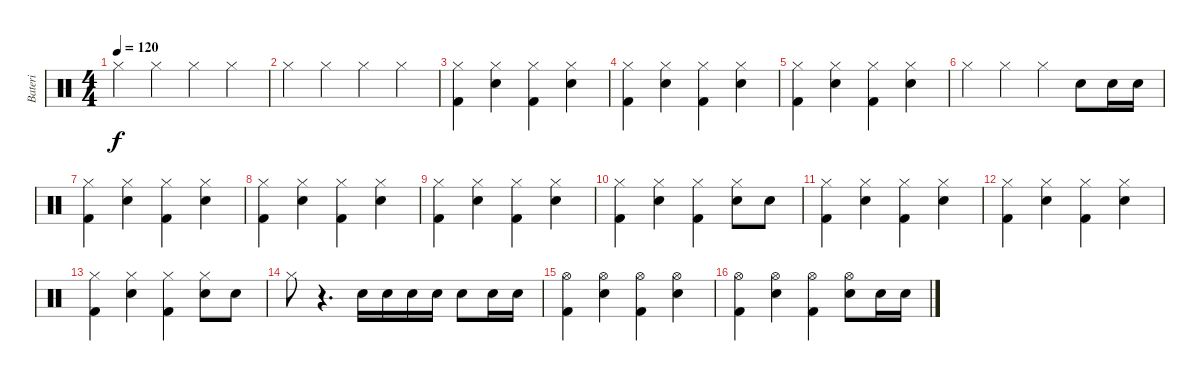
\track ("Bateri" "Bateri") {instrument percussion}
\staff {score}
\articulation defaults
\ts (4 4)
\tempo 120
\clef neutral
\ks c "Hi-Hat (closed)".4{dy f} "Hi-Hat (closed)".4 "Hi-Hat (closed)".4 "Hi-Hat (closed)".4
|
"Hi-Hat (closed)".4 "Hi-Hat (closed)".4 "Hi-Hat (closed)".4 "Hi-Hat (closed)".4 |
("Kick (hit) 2" "Hi-Hat (closed)").4 ("Electric Snare (hit)" "Hi-Hat (closed)").4 ("Kick (hit) 2" "Hi-Hat (closed)").4 ("Electric Snare (hit)" "Hi-Hat (closed)").4 |
("Kick (hit) 2" "Hi-Hat (closed)").4 ("Electric Snare (hit)" "Hi-Hat (closed)").4 ("Kick (hit) 2" "Hi-Hat (closed)").4 ("Electric Snare (hit)" "Hi-Hat (closed)").4 |
("Kick (hit) 2" "Hi-Hat (closed)").4 ("Electric Snare (hit)" "Hi-Hat (closed)").4 ("Kick (hit) 2" "Hi-Hat (closed)").4 ("Electric Snare (hit)" "Hi-Hat (closed)").4 |
"Hi-Hat (closed)".4 "Hi-Hat (closed)".4 "Hi-Hat (closed)".4 "Electric Snare (hit)".8 "Electric Snare (hit)".16 "Electric Snare (hit)".16 |
("Kick (hit) 2" "Hi-Hat (closed)").4 ("Electric Snare (hit)" "Hi-Hat (closed)").4 ("Kick (hit) 2" "Hi-Hat (closed)").4 ("Electric Snare (hit)" "Hi-Hat (closed)").4 |
("Kick (hit) 2" "Hi-Hat (closed)").4 ("Electric Snare (hit)" "Hi-Hat (closed)").4 ("Kick (hit) 2" "Hi-Hat (closed)").4 ("Electric Snare (hit)" "Hi-Hat (closed)").4 |
("Kick (hit) 2" "Hi-Hat (closed)").4 ("Electric Snare (hit)" "Hi-Hat (closed)").4 ("Kick (hit) 2" "Hi-Hat (closed)").4 ("Electric Snare (hit)" "Hi-Hat (closed)").4 |
("Kick (hit) 2" "Hi-Hat (closed)").4 ("Electric Snare (hit)" "Hi-Hat (closed)").4 ("Kick (hit) 2" "Hi-Hat (closed)").4 ("Electric Snare (hit)" "Hi-Hat (closed)").8 "Electric Snare (hit)".8 |
("Kick (hit) 2" "Hi-Hat (closed)").4 ("Electric Snare (hit)" "Hi-Hat (closed)").4 ("Kick (hit) 2" "Hi-Hat (closed)").4 ("Electric Snare (hit)" "Hi-Hat (closed)").4 |
("Kick (hit) 2" "Hi-Hat (closed)").4 ("Electric Snare (hit)" "Hi-Hat (closed)").4 ("Kick (hit) 2" "Hi-Hat (closed)").4 ("Electric Snare (hit)" "Hi-Hat (closed)").4 |
("Kick (hit) 2" "Hi-Hat (closed)").4 ("Electric Snare (hit)" "Hi-Hat (closed)").4 ("Kick (hit) 2" "Hi-Hat (closed)").4 ("Electric Snare (hit)" "Hi-Hat (closed)").8 "Electric Snare (hit)".8 |
"Hi-Hat (closed)".8 r.4{d} "Electric Snare (hit)".16 "Electric Snare (hit)".16 "Electric Snare (hit)".16 "Electric Snare (hit)".16 "Electric Snare (hit)".8 "Electric Snare (hit)".16 "Electric Snare (hit)".16 |
("Kick (hit) 2" "Hi-Hat (open)").4 ("Electric Snare (hit)" "Hi-Hat (open)").4 ("Kick (hit) 2" "Hi-Hat (open)").4 ("Electric Snare (hit)" "Hi-Hat (open)").4 |
("Kick (hit) 2" "Hi-Hat (open)").4 ("Electric Snare (hit)" "Hi-Hat (open)").4 ("Kick (hit) 2" "Hi-Hat (open)").4 ("Electric Snare (hit)" "Hi-Hat (open)").8 "Electric Snare (hit)".16 "Electric Snare (hit)".16
